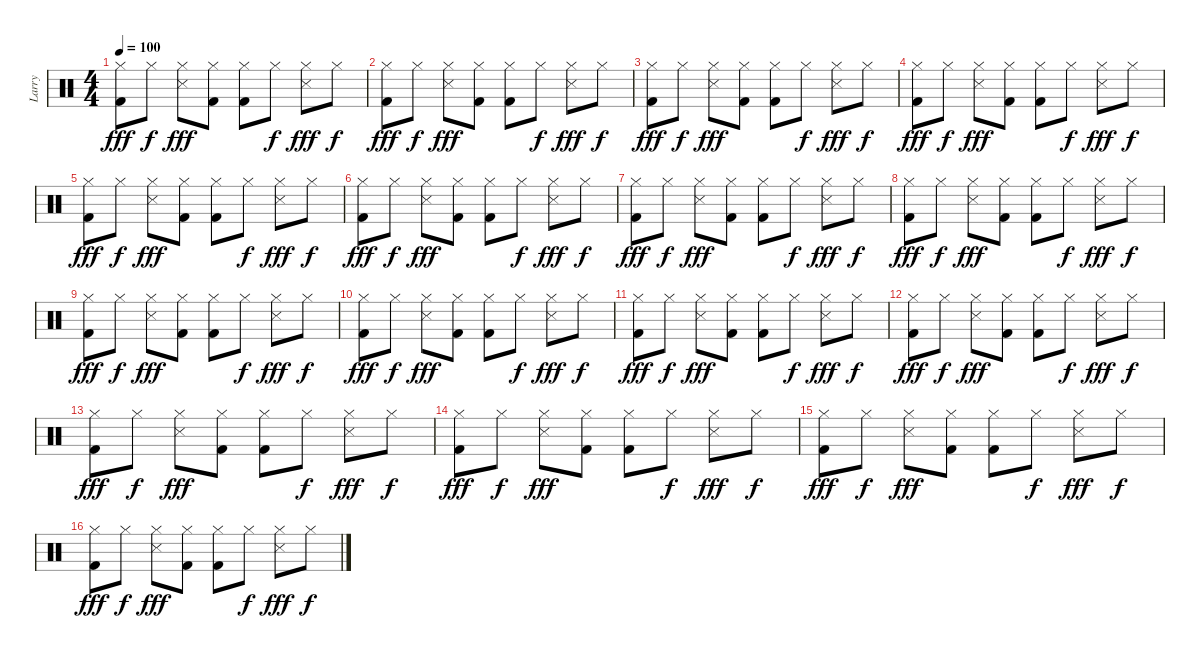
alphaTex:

\track ("Larry" "Larry") {instrument percussion}
\staff {score}
\articulation defaults
\ts (4 4)
\tempo 100
\clef neutral
\ks c
("Kick (hit) 2" "Hi-Hat (closed)").8{dy fff} "Hi-Hat (closed)".8{dy f} ("Snare (side stick) 3" "Hi-Hat (closed)").8{dy fff} ("Kick (hit) 2" "Hi-Hat (closed)").8 ("Kick (hit) 2" "Hi-Hat (closed)").8 "Hi-Hat (closed)".8{dy f} ("Snare (side stick) 3" "Hi-Hat (closed)").8{dy fff} "Hi-Hat (closed)".8{dy f} |
("Kick (hit) 2" "Hi-Hat (closed)").8{dy fff} "Hi-Hat (closed)".8{dy f} ("Snare (side stick) 3" "Hi-Hat (closed)").8{dy fff} ("Kick (hit) 2" "Hi-Hat (closed)").8 ("Kick (hit) 2" "Hi-Hat (closed)").8 "Hi-Hat (closed)".8{dy f} ("Snare (side stick) 3" "Hi-Hat (closed)").8{dy fff} "Hi-Hat (closed)".8{dy f} |
("Hi-Hat (closed)" "Kick (hit) 2").8{dy fff} "Hi-Hat (closed)".8{dy f} ("Hi-Hat (closed)" "Snare (side stick) 3").8{dy fff} ("Hi-Hat (closed)" "Kick (hit) 2").8 ("Hi-Hat (closed)" "Kick (hit) 2").8 "Hi-Hat (closed)".8{dy f} ("Hi-Hat (closed)" "Snare (side stick) 3").8{dy fff} "Hi-Hat (closed)".8{dy f} |
("Hi-Hat (closed)" "Kick (hit) 2").8{dy fff} "Hi-Hat (closed)".8{dy f} ("Hi-Hat (closed)" "Snare (side stick) 3").8{dy fff} ("Hi-Hat (closed)" "Kick (hit) 2").8 ("Hi-Hat (closed)" "Kick (hit) 2").8 "Hi-Hat (closed)".8{dy f} ("Hi-Hat (closed)" "Snare (side stick) 3").8{dy fff} "Hi-Hat (closed)".8{dy f} |
("Kick (hit) 2" "Hi-Hat (closed)").8{dy fff} "Hi-Hat (closed)".8{dy f} ("Snare (side stick) 3" "Hi-Hat (closed)").8{dy fff} ("Kick (hit) 2" "Hi-Hat (closed)").8 ("Kick (hit) 2" "Hi-Hat (closed)").8 "Hi-Hat (closed)".8{dy f} ("Snare (side stick) 3" "Hi-Hat (closed)").8{dy fff} "Hi-Hat (closed)".8{dy f} |
("Hi-Hat (closed)" "Kick (hit) 2").8{dy fff} "Hi-Hat (closed)".8{dy f} ("Hi-Hat (closed)" "Snare (side stick) 3").8{dy fff} ("Hi-Hat (closed)" "Kick (hit) 2").8 ("Hi-Hat (closed)" "Kick (hit) 2").8 "Hi-Hat (closed)".8{dy f} ("Hi-Hat (closed)" "Snare (side stick) 3").8{dy fff} "Hi-Hat (closed)".8{dy f} |
("Kick (hit) 2" "Hi-Hat (closed)").8{dy fff} "Hi-Hat (closed)".8{dy f} ("Snare (side stick) 3" "Hi-Hat (closed)").8{dy fff} ("Kick (hit) 2" "Hi-Hat (closed)").8 ("Kick (hit) 2" "Hi-Hat (closed)").8 "Hi-Hat (closed)".8{dy f} ("Snare (side stick) 3" "Hi-Hat (closed)").8{dy fff} "Hi-Hat (closed)".8{dy f} |
("Kick (hit) 2" "Hi-Hat (closed)").8{dy fff} "Hi-Hat (closed)".8{dy f} ("Snare (side stick) 3" "Hi-Hat (closed)").8{dy fff} ("Kick (hit) 2" "Hi-Hat (closed)").8 ("Kick (hit) 2" "Hi-Hat (closed)").8 "Hi-Hat (closed)".8{dy f} ("Snare (side stick) 3" "Hi-Hat (closed)").8{dy fff} "Hi-Hat (closed)".8{dy f} |
("Hi-Hat (closed)" "Kick (hit) 2").8{dy fff} "Hi-Hat (closed)".8{dy f} ("Hi-Hat (closed)" "Snare (side stick) 3").8{dy fff} ("Hi-Hat (closed)" "Kick (hit) 2").8 ("Hi-Hat (closed)" "Kick (hit) 2").8 "Hi-Hat (closed)".8{dy f} ("Hi-Hat (closed)" "Snare (side stick) 3").8{dy fff} "Hi-Hat (closed)".8{dy f} |
("Hi-Hat (closed)" "Kick (hit) 2").8{dy fff} "Hi-Hat (closed)".8{dy f} ("Hi-Hat (closed)" "Snare (side stick) 3").8{dy fff} ("Hi-Hat (closed)" "Kick (hit) 2").8 ("Hi-Hat (closed)" "Kick (hit) 2").8 "Hi-Hat (closed)".8{dy f} ("Hi-Hat (closed)" "Snare (side stick) 3").8{dy fff} "Hi-Hat (closed)".8{dy f} |
("Kick (hit) 2" "Hi-Hat (closed)").8{dy fff} "Hi-Hat (closed)".8{dy f} ("Snare (side stick) 3" "Hi-Hat (closed)").8{dy fff} ("Kick (hit) 2" "Hi-Hat (closed)").8 ("Kick (hit) 2" "Hi-Hat (closed)").8 "Hi-Hat (closed)".8{dy f} ("Snare (side stick) 3" "Hi-Hat (closed)").8{dy fff} "Hi-Hat (closed)".8{dy f} |
("Kick (hit) 2" "Hi-Hat (closed)").8{dy fff} "Hi-Hat (closed)".8{dy f} ("Snare (side stick) 3" "Hi-Hat (closed)").8{dy fff} ("Kick (hit) 2" "Hi-Hat (closed)").8 ("Kick (hit) 2" "Hi-Hat (closed)").8 "Hi-Hat (closed)".8{dy f} ("Snare (side stick) 3" "Hi-Hat (closed)").8{dy fff} "Hi-Hat (closed)".8{dy f} |
("Hi-Hat (closed)" "Kick (hit) 2").8{dy fff} "Hi-Hat (closed)".8{dy f} ("Hi-Hat (closed)" "Snare (side stick) 3").8{dy fff} ("Hi-Hat (closed)" "Kick (hit) 2").8 ("Hi-Hat (closed)" "Kick (hit) 2").8 "Hi-Hat (closed)".8{dy f} ("Hi-Hat (closed)" "Snare (side stick) 3").8{dy fff} "Hi-Hat (closed)".8{dy f} |
("Kick (hit) 2" "Hi-Hat (closed)").8{dy fff} "Hi-Hat (closed)".8{dy f} ("Snare (side stick) 3" "Hi-Hat (closed)").8{dy fff} ("Kick (hit) 2" "Hi-Hat (closed)").8 ("Kick (hit) 2" "Hi-Hat (closed)").8 "Hi-Hat (closed)".8{dy f} ("Snare (side stick) 3" "Hi-Hat (closed)").8{dy fff} "Hi-Hat (closed)".8{dy f} |
("Hi-Hat (closed)" "Kick (hit) 2").8{dy fff} "Hi-Hat (closed)".8{dy f} ("Hi-Hat (closed)" "Snare (side stick) 3").8{dy fff} ("Hi-Hat (closed)" "Kick (hit) 2").8 ("Hi-Hat (closed)" "Kick (hit) 2").8 "Hi-Hat (closed)".8{dy f} ("Hi-Hat (closed)" "Snare (side stick) 3").8{dy fff} "Hi-Hat (closed)".8{dy f} |
("Hi-Hat (closed)" "Kick (hit) 2").8{dy fff} "Hi-Hat (closed)".8{dy f} ("Hi-Hat (closed)" "Snare (side stick) 3").8{dy fff} ("Hi-Hat (closed)" "Kick (hit) 2").8 ("Hi-Hat (closed)" "Kick (hit) 2").8 "Hi-Hat (closed)".8{dy f} ("Hi-Hat (closed)" "Snare (side stick) 3").8{dy fff} "Hi-Hat (closed)".8{dy f}
